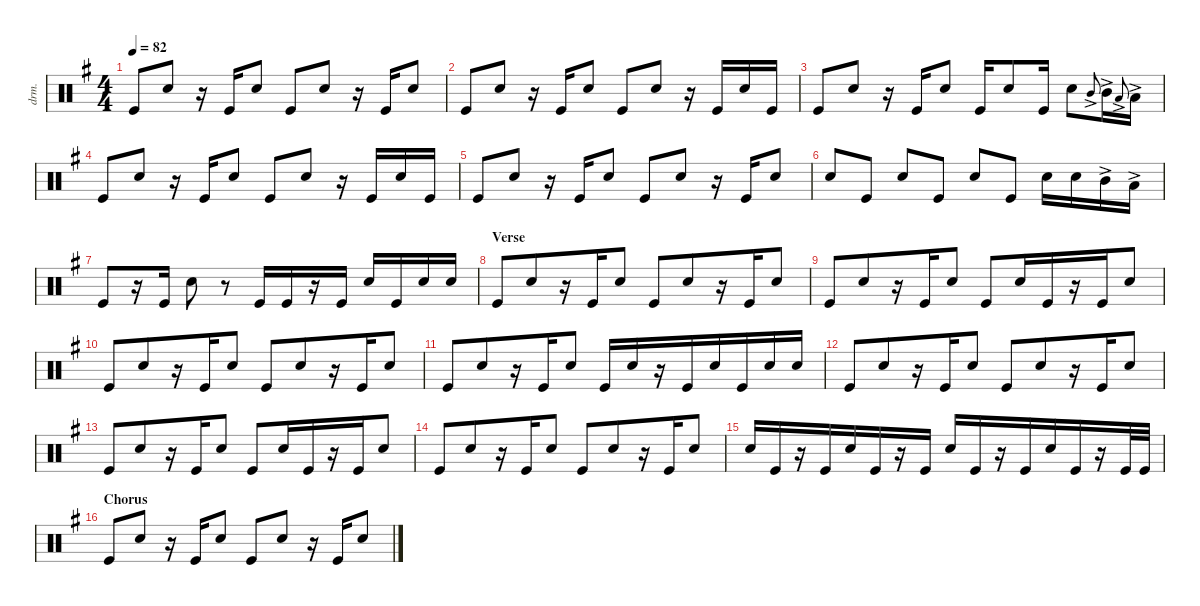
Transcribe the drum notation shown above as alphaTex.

\defaultSystemsLayout 2
\hideDynamics
\bracketExtendMode nobrackets
\otherSystemsTrackNameOrientation horizontal
\track ("Drums" "drm.") {instrument percussion}
\staff {score}
\articulation defaults
\ts (4 4)
\tempo 82
\clef neutral
\ks g "Kick (hit)".8{dy f} "Snare (hit) 2".8
r.16 "Kick (hit)".16 "Snare (hit) 2".8 "Kick (hit)".8 "Snare (hit) 2".8 r.16 "Kick (hit)".16 "Snare (hit) 2".8 |
"Kick (hit)".8 "Snare (hit) 2".8 r.16 "Kick (hit)".16 "Snare (hit) 2".8 "Kick (hit)".8 "Snare (hit) 2".8 r.16 "Kick (hit)".16 "Snare (hit) 2".16 "Kick (hit)".16 |
"Kick (hit)".8 "Snare (hit) 2".8 r.16 "Kick (hit)".16 "Snare (hit) 2".8 "Kick (hit)".16 "Snare (hit) 2".8 "Kick (hit)".16 "Snare (hit) 2".8 "Mid Tom (hit)"{ac}.8{gr onbeat} "Mid Tom (hit)"{ac}.16 "Low Tom (hit)"{ac}.8{gr onbeat} "Low Tom (hit)"{ac}.16 |
"Kick (hit)".8 "Snare (hit) 2".8 r.16 "Kick (hit)".16 "Snare (hit) 2".8 "Kick (hit)".8 "Snare (hit) 2".8 r.16 "Kick (hit)".16 "Snare (hit) 2".16 "Kick (hit)".16 |
"Kick (hit)".8 "Snare (hit) 2".8 r.16 "Kick (hit)".16 "Snare (hit) 2".8 "Kick (hit)".8 "Snare (hit) 2".8 r.16 "Kick (hit)".16 "Snare (hit) 2".8 |
"Snare (hit) 2".8 "Kick (hit)".8 "Snare (hit) 2".8 "Kick (hit)".8 "Snare (hit) 2".8 "Kick (hit)".8 "Snare (hit) 2".16 "Snare (hit) 2".16 "Mid Tom (hit)"{ac}.16 "Low Tom (hit)"{ac}.16 |
"Kick (hit)".8 r.16 "Kick (hit)".16 "Snare (hit) 2".8 r.8 "Kick (hit)".16 "Kick (hit)".16 r.16 "Kick (hit)".16 "Snare (hit) 2".16 "Kick (hit)".16 "Snare (hit) 2".16 "Snare (hit) 2".16 |
\beaming (8 4 4)
\section ("" "Verse")
"Kick (hit)".8 "Snare (hit) 2".8 r.16 "Kick (hit)".16 "Snare (hit) 2".8 "Kick (hit)".8 "Snare (hit) 2".8 r.16 "Kick (hit)".16 "Snare (hit) 2".8 |
"Kick (hit)".8 "Snare (hit) 2".8 r.16 "Kick (hit)".16 "Snare (hit) 2".8 "Kick (hit)".8 "Snare (hit) 2".16 "Kick (hit)".16 r.16 "Kick (hit)".16 "Snare (hit) 2".8 |
"Kick (hit)".8 "Snare (hit) 2".8 r.16 "Kick (hit)".16 "Snare (hit) 2".8 "Kick (hit)".8 "Snare (hit) 2".8 r.16 "Kick (hit)".16 "Snare (hit) 2".8 |
"Kick (hit)".8 "Snare (hit) 2".8 r.16 "Kick (hit)".16 "Snare (hit) 2".8 "Kick (hit)".16 "Snare (hit) 2".16 r.16 "Kick (hit)".16 "Snare (hit) 2".16 "Kick (hit)".16 "Snare (hit) 2".16 "Snare (hit) 2".16 |
"Kick (hit)".8 "Snare (hit) 2".8 r.16 "Kick (hit)".16 "Snare (hit) 2".8 "Kick (hit)".8 "Snare (hit) 2".8 r.16 "Kick (hit)".16 "Snare (hit) 2".8 |
"Kick (hit)".8 "Snare (hit) 2".8 r.16 "Kick (hit)".16 "Snare (hit) 2".8 "Kick (hit)".8 "Snare (hit) 2".16 "Kick (hit)".16 r.16 "Kick (hit)".16 "Snare (hit) 2".8 |
"Kick (hit)".8 "Snare (hit) 2".8 r.16 "Kick (hit)".16 "Snare (hit) 2".8 "Kick (hit)".8 "Snare (hit) 2".8 r.16 "Kick (hit)".16 "Snare (hit) 2".8 |
"Snare (hit) 2".16 "Kick (hit)".16 r.16 "Kick (hit)".16 "Snare (hit) 2".16 "Kick (hit)".16 r.16 "Kick (hit)".16 "Snare (hit) 2".16 "Kick (hit)".16 r.16 "Kick (hit)".16 "Snare (hit) 2".16 "Kick (hit)".16 r.16 "Kick (hit)".32 "Kick (hit)".32 |
\beaming (8 2 2 2 2)
\section ("" "Chorus")
"Kick (hit)".8 "Snare (hit) 2".8 r.16 "Kick (hit)".16 "Snare (hit) 2".8 "Kick (hit)".8 "Snare (hit) 2".8 r.16 "Kick (hit)".16 "Snare (hit) 2".8
